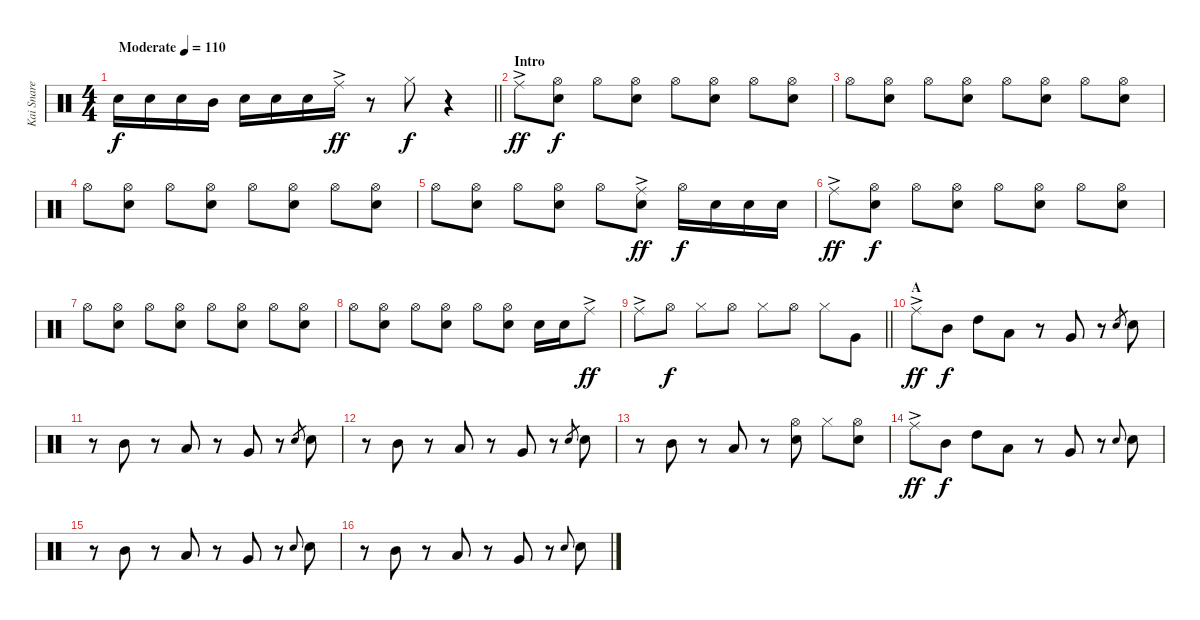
\track ("Kai Snare" "Kai Snare") {instrument percussion}
\staff {score}
\articulation defaults
\ts (4 4)
\tempo (110 "Moderate")
\clef neutral
\barLineRight lightlight
\ks c "Snare (hit) 2".16{dy f} "Snare (hit) 2".16 "Snare (hit) 2".16 "Mid Tom (hit)".16 "Snare (hit) 2".16 "Snare (hit) 2".16 "Snare (hit) 2".16 "Ride (middle)"{ac}.16{dy ff}
r.8 "Hi-Hat (closed)".8{dy f} r.4 |
\section ("" "Intro")
"Ride (middle)"{ac}.8{dy ff} ("Hi-Hat (open)" "Snare (hit) 2").8{dy f} "Hi-Hat (open)".8 ("Hi-Hat (open)" "Snare (hit) 2").8 "Hi-Hat (open)".8 ("Hi-Hat (open)" "Snare (hit) 2").8 "Hi-Hat (open)".8 ("Hi-Hat (open)" "Snare (hit) 2").8 |
"Hi-Hat (open)".8 ("Hi-Hat (open)" "Snare (hit) 2").8 "Hi-Hat (open)".8 ("Hi-Hat (open)" "Snare (hit) 2").8 "Hi-Hat (open)".8 ("Hi-Hat (open)" "Snare (hit) 2").8 "Hi-Hat (open)".8 ("Hi-Hat (open)" "Snare (hit) 2").8 |
"Hi-Hat (open)".8 ("Hi-Hat (open)" "Snare (hit) 2").8 "Hi-Hat (open)".8 ("Hi-Hat (open)" "Snare (hit) 2").8 "Hi-Hat (open)".8 ("Hi-Hat (open)" "Snare (hit) 2").8 "Hi-Hat (open)".8 ("Hi-Hat (open)" "Snare (hit) 2").8 |
"Hi-Hat (open)".8 ("Hi-Hat (open)" "Snare (hit) 2").8 "Hi-Hat (open)".8 ("Hi-Hat (open)" "Snare (hit) 2").8 "Hi-Hat (open)".8 ("Ride (middle)"{ac} "Snare (hit) 2").8{dy ff} "Hi-Hat (open)".16{dy f} "Snare (hit) 2".16 "Snare (hit) 2".16 "Snare (hit) 2".16 |
"Ride (middle)"{ac}.8{dy ff} ("Hi-Hat (open)" "Snare (hit) 2").8{dy f} "Hi-Hat (open)".8 ("Hi-Hat (open)" "Snare (hit) 2").8 "Hi-Hat (open)".8 ("Hi-Hat (open)" "Snare (hit) 2").8 "Hi-Hat (open)".8 ("Hi-Hat (open)" "Snare (hit) 2").8 |
"Hi-Hat (open)".8 ("Hi-Hat (open)" "Snare (hit) 2").8 "Hi-Hat (open)".8 ("Hi-Hat (open)" "Snare (hit) 2").8 "Hi-Hat (open)".8 ("Hi-Hat (open)" "Snare (hit) 2").8 "Hi-Hat (open)".8 ("Hi-Hat (open)" "Snare (hit) 2").8 |
"Hi-Hat (open)".8 ("Hi-Hat (open)" "Snare (hit) 2").8 "Hi-Hat (open)".8 ("Hi-Hat (open)" "Snare (hit) 2").8 "Hi-Hat (open)".8 ("Hi-Hat (open)" "Snare (hit) 2").8 "Snare (hit) 2".16 "Snare (hit) 2".16 "Ride (middle)"{ac}.8{dy ff} |
\barLineRight lightlight "Ride (middle)"{ac}.8 "Hi-Hat (open)".8{dy f} "Hi-Hat (closed)".8 "Hi-Hat (open)".8 "Hi-Hat (closed)".8 "Hi-Hat (open)".8 "Hi-Hat (closed)".8 "Very Low Tom (hit)".8
|
\section ("" "A")
"Ride (middle)"{ac}.8{dy ff} "Mid Tom (hit)".8{dy f} "High Tom (hit)".8 "Low Tom (hit)".8 r.8 "Very Low Tom (hit)".8 r.8 "Snare (hit) 2".8{gr} "Snare (hit) 2".8 |
r.8 "Mid Tom (hit)".8 r.8 "Low Tom (hit)".8 r.8 "Very Low Tom (hit)".8 r.8 "Snare (hit) 2".8{gr} "Snare (hit) 2".8 |
r.8 "Mid Tom (hit)".8 r.8 "Low Tom (hit)".8 r.8 "Very Low Tom (hit)".8 r.8 "Snare (hit) 2".8{gr} "Snare (hit) 2".8 |
r.8 "Mid Tom (hit)".8 r.8 "Low Tom (hit)".8 r.8 ("Hi-Hat (open)" "Snare (hit) 2").8 "Hi-Hat (closed)".8 ("Hi-Hat (open)" "Snare (hit) 2").8 |
"Ride (middle)"{ac}.8{dy ff} "Mid Tom (hit)".8{dy f} "High Tom (hit)".8 "Low Tom (hit)".8 r.8 "Very Low Tom (hit)".8 r.8 "Snare (hit) 2".8{gr onbeat} "Snare (hit) 2".8 |
r.8 "Mid Tom (hit)".8 r.8 "Low Tom (hit)".8 r.8 "Very Low Tom (hit)".8 r.8 "Snare (hit) 2".8{gr onbeat} "Snare (hit) 2".8 |
r.8 "Mid Tom (hit)".8 r.8 "Low Tom (hit)".8 r.8 "Very Low Tom (hit)".8 r.8 "Snare (hit) 2".8{gr onbeat} "Snare (hit) 2".8
